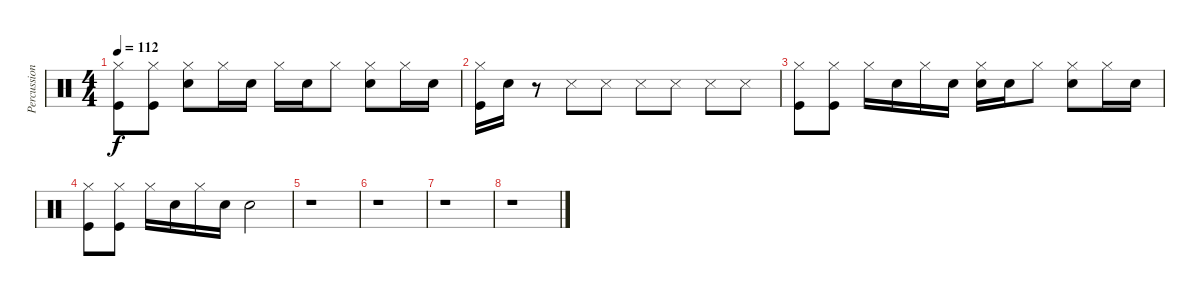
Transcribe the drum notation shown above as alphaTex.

\track ("Percussion 2" "Percussion") {instrument percussion}
\staff {score}
\articulation defaults
\ts (4 4)
\tempo 112
\clef neutral
\ks c
("Hi-Hat (closed)" "Kick (hit)").8{dy f} ("Hi-Hat (closed)" "Kick (hit)").8 ("Hi-Hat (closed)" "Snare (hit) 2").8 "Hi-Hat (closed)".16 "Snare (hit) 2".16 "Hi-Hat (closed)".16 "Snare (hit) 2".16 "Hi-Hat (closed)".8 ("Hi-Hat (closed)" "Snare (hit) 2").8 "Hi-Hat (closed)".16 "Snare (hit) 2".16 |
("Hi-Hat (closed)" "Kick (hit)").16 "Snare (hit) 2".16 r.8 "Snare (side stick) 3".8 "Snare (side stick) 3".8 "Snare (side stick) 3".8 "Snare (side stick) 3".8 "Snare (side stick) 3".8 "Snare (side stick) 3".8 |
("Hi-Hat (closed)" "Kick (hit)").8 ("Hi-Hat (closed)" "Kick (hit)").8 "Hi-Hat (closed)".16 "Snare (hit) 2".16 "Hi-Hat (closed)".16 "Snare (hit) 2".16 ("Hi-Hat (closed)" "Snare (hit) 2").16 "Snare (hit) 2".16 "Hi-Hat (closed)".8 ("Hi-Hat (closed)" "Snare (hit) 2").8 "Hi-Hat (closed)".16 "Snare (hit) 2".16 |
("Hi-Hat (closed)" "Kick (hit)").8 ("Hi-Hat (closed)" "Kick (hit)").8 "Hi-Hat (closed)".16 "Snare (hit) 2".16 "Hi-Hat (closed)".16 "Snare (hit) 2".16 "Snare (hit) 2".2 |
r.1 |
r.1 |
r.1 |
r.1
